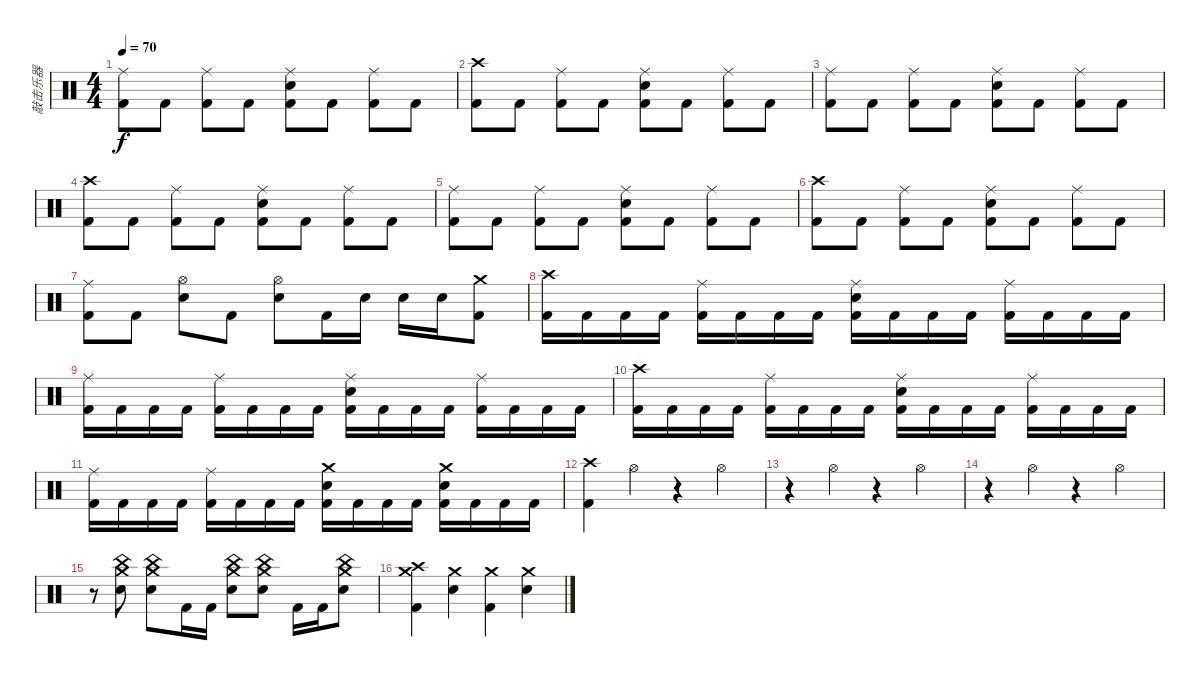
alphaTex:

\track ("敲击乐器" "敲击乐器") {instrument percussion}
\staff {score}
\articulation defaults
\ts (4 4)
\tempo 70
\clef neutral
\ks c
("Ride (middle)" "Kick (hit) 2").8{dy f} "Kick (hit) 2".8 ("Ride (middle)" "Kick (hit) 2").8 "Kick (hit) 2".8 ("Ride (middle)" "Snare (hit) 2" "Kick (hit) 2").8 "Kick (hit) 2".8 ("Ride (middle)" "Kick (hit) 2").8 "Kick (hit) 2".8 |
("Crash high (hit)" "Kick (hit) 2").8 "Kick (hit) 2".8 ("Ride (middle)" "Kick (hit) 2").8 "Kick (hit) 2".8 ("Ride (middle)" "Snare (hit) 2" "Kick (hit) 2").8 "Kick (hit) 2".8 ("Ride (middle)" "Kick (hit) 2").8 "Kick (hit) 2".8 |
("Ride (middle)" "Kick (hit) 2").8 "Kick (hit) 2".8 ("Ride (middle)" "Kick (hit) 2").8 "Kick (hit) 2".8 ("Ride (middle)" "Snare (hit) 2" "Kick (hit) 2").8 "Kick (hit) 2".8 ("Ride (middle)" "Kick (hit) 2").8 "Kick (hit) 2".8 |
("Crash high (hit)" "Kick (hit) 2").8 "Kick (hit) 2".8 ("Ride (middle)" "Kick (hit) 2").8 "Kick (hit) 2".8 ("Ride (middle)" "Snare (hit) 2" "Kick (hit) 2").8 "Kick (hit) 2".8 ("Ride (middle)" "Kick (hit) 2").8 "Kick (hit) 2".8 |
("Ride (middle)" "Kick (hit) 2").8 "Kick (hit) 2".8 ("Ride (middle)" "Kick (hit) 2").8 "Kick (hit) 2".8 ("Ride (middle)" "Snare (hit) 2" "Kick (hit) 2").8 "Kick (hit) 2".8 ("Ride (middle)" "Kick (hit) 2").8 "Kick (hit) 2".8 |
("Crash high (hit)" "Kick (hit) 2").8 "Kick (hit) 2".8 ("Ride (middle)" "Kick (hit) 2").8 "Kick (hit) 2".8 ("Ride (middle)" "Snare (hit) 2" "Kick (hit) 2").8 "Kick (hit) 2".8 ("Ride (middle)" "Kick (hit) 2").8 "Kick (hit) 2".8 |
("Ride (middle)" "Kick (hit) 2").8 "Kick (hit) 2".8 ("Hi-Hat (open)" "Snare (hit) 2").8 "Kick (hit) 2".8 ("Hi-Hat (open)" "Snare (hit) 2").8 "Kick (hit) 2".16 "Snare (hit) 2".16 "Snare (hit) 2".16 "Snare (hit) 2".16 ("Crash medium (hit)" "Kick (hit) 2").8 |
("Crash high (hit)" "Kick (hit) 2").16 "Kick (hit) 2".16 "Kick (hit) 2".16 "Kick (hit) 2".16 ("Ride (middle)" "Kick (hit) 2").16 "Kick (hit) 2".16 "Kick (hit) 2".16 "Kick (hit) 2".16 ("Ride (middle)" "Snare (hit) 2" "Kick (hit) 2").16 "Kick (hit) 2".16 "Kick (hit) 2".16 "Kick (hit) 2".16 ("Ride (middle)" "Kick (hit) 2").16 "Kick (hit) 2".16 "Kick (hit) 2".16 "Kick (hit) 2".16 |
("Ride (middle)" "Kick (hit) 2").16 "Kick (hit) 2".16 "Kick (hit) 2".16 "Kick (hit) 2".16 ("Ride (middle)" "Kick (hit) 2").16 "Kick (hit) 2".16 "Kick (hit) 2".16 "Kick (hit) 2".16 ("Ride (middle)" "Snare (hit) 2" "Kick (hit) 2").16 "Kick (hit) 2".16 "Kick (hit) 2".16 "Kick (hit) 2".16 ("Ride (middle)" "Kick (hit) 2").16 "Kick (hit) 2".16 "Kick (hit) 2".16 "Kick (hit) 2".16 |
("Crash high (hit)" "Kick (hit) 2").16 "Kick (hit) 2".16 "Kick (hit) 2".16 "Kick (hit) 2".16 ("Ride (middle)" "Kick (hit) 2").16 "Kick (hit) 2".16 "Kick (hit) 2".16 "Kick (hit) 2".16 ("Ride (middle)" "Snare (hit) 2" "Kick (hit) 2").16 "Kick (hit) 2".16 "Kick (hit) 2".16 "Kick (hit) 2".16 ("Ride (middle)" "Kick (hit) 2").16 "Kick (hit) 2".16 "Kick (hit) 2".16 "Kick (hit) 2".16 |
("Ride (middle)" "Kick (hit) 2").16 "Kick (hit) 2".16 "Kick (hit) 2".16 "Kick (hit) 2".16 ("Ride (middle)" "Kick (hit) 2").16 "Kick (hit) 2".16 "Kick (hit) 2".16 "Kick (hit) 2".16 ("Crash medium (hit)" "Snare (hit) 2" "Kick (hit) 2").16 "Kick (hit) 2".16 "Kick (hit) 2".16 "Kick (hit) 2".16 ("Crash medium (hit)" "Snare (hit) 2" "Kick (hit) 2").16 "Kick (hit) 2".16 "Kick (hit) 2".16 "Kick (hit) 2".16 |
("Kick (hit) 2" "Crash high (hit)").4 "Hi-Hat (open)".4 r.4 "Hi-Hat (open)".4 |
r.4 "Hi-Hat (open)".4 r.4 "Hi-Hat (open)".4 |
r.4 "Hi-Hat (open)".4 r.4 "Hi-Hat (open)".4 |
r.8 ("Crash medium (hit)" "China (hit)" "Snare (hit) 2").8 ("Crash medium (hit)" "China (hit)" "Snare (hit) 2").8 "Kick (hit) 2".16 "Kick (hit) 2".16 ("Crash medium (hit)" "China (hit)" "Snare (hit) 2").8 ("Crash medium (hit)" "China (hit)" "Snare (hit) 2").8 "Kick (hit) 2".16 "Kick (hit) 2".16 ("Crash medium (hit)" "China (hit)" "Snare (hit) 2").8 |
("Crash medium (hit)" "Crash high (hit)" "Kick (hit) 2").4 ("Crash medium (hit)" "Snare (hit) 2").4 ("Crash medium (hit)" "Kick (hit) 2").4 ("Crash medium (hit)" "Snare (hit) 2").4
